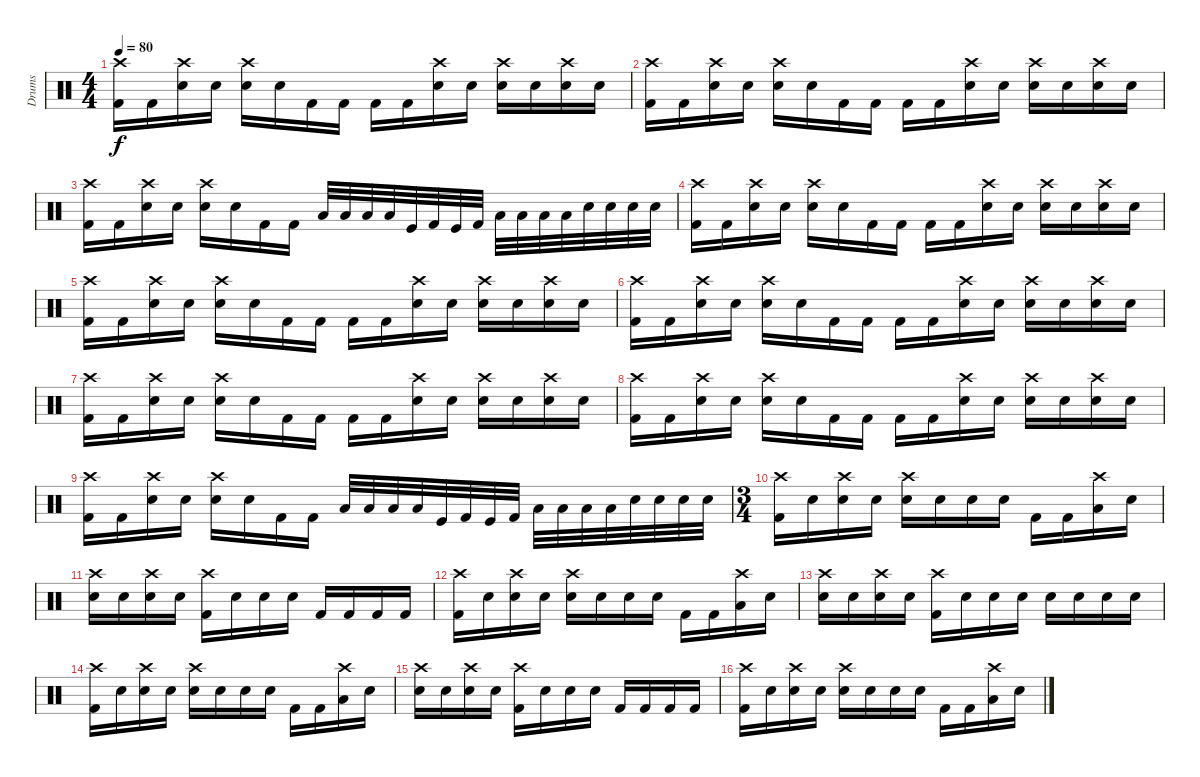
\track ("Drums" "Drums") {instrument percussion}
\staff {score}
\articulation defaults
\ts (4 4)
\tempo 80
\clef neutral
\ks c
("Crash high (hit)" "Kick (hit) 2").16{dy f} "Kick (hit) 2".16 ("Crash high (hit)" "Snare (hit)"{x}).16 "Snare (hit)"{x}.16 ("Crash high (hit)" "Snare (hit) 2").16 "Snare (hit)"{x}.16 "Kick (hit) 2".16 "Kick (hit) 2".16 "Kick (hit) 2".16 "Kick (hit) 2".16 ("Crash high (hit)" "Snare (hit)"{x}).16 "Snare (hit)"{x}.16 ("Crash high (hit)" "Snare (hit) 2").16 "Snare (hit) 2"{x}.16 ("Crash high (hit)" "Snare (hit) 2").16 "Snare (hit) 2"{x}.16 |
("Crash high (hit)" "Kick (hit) 2").16 "Kick (hit) 2".16 ("Crash high (hit)" "Snare (hit)"{x}).16 "Snare (hit)"{x}.16 ("Crash high (hit)" "Snare (hit) 2").16 "Snare (hit)"{x}.16 "Kick (hit) 2".16 "Kick (hit) 2".16 "Kick (hit) 2".16 "Kick (hit) 2".16 ("Crash high (hit)" "Snare (hit)"{x}).16 "Snare (hit)"{x}.16 ("Crash high (hit)" "Snare (hit) 2").16 "Snare (hit) 2"{x}.16 ("Crash high (hit)" "Snare (hit) 2").16 "Snare (hit) 2"{x}.16 |
("Crash high (hit)" "Kick (hit) 2").16 "Kick (hit) 2".16 ("Crash high (hit)" "Snare (hit)"{x}).16 "Snare (hit)"{x}.16 ("Crash high (hit)" "Snare (hit) 2").16 "Snare (hit)"{x}.16 "Kick (hit) 2".16 "Kick (hit) 2".16 "Low Floor Tom (hit)".32 "Low Floor Tom (hit)".32 "Low Floor Tom (hit)".32 "Low Floor Tom (hit)".32 "Kick (hit)".32 "Kick (hit) 2".32 "Kick (hit)".32 "Kick (hit) 2".32 "Low Floor Tom (hit)".32 "Low Floor Tom (hit)".32 "Low Floor Tom (hit)".32 "Low Floor Tom (hit)".32 "Snare (hit) 2".32 "Snare (hit) 2".32 "Snare (hit) 2".32 "Snare (hit) 2".32 |
("Crash high (hit)" "Kick (hit) 2").16 "Kick (hit) 2".16 ("Crash high (hit)" "Snare (hit)"{x}).16 "Snare (hit)"{x}.16 ("Crash high (hit)" "Snare (hit) 2").16 "Snare (hit)"{x}.16 "Kick (hit) 2".16 "Kick (hit) 2".16 "Kick (hit) 2".16 "Kick (hit) 2".16 ("Crash high (hit)" "Snare (hit)"{x}).16 "Snare (hit)"{x}.16 ("Crash high (hit)" "Snare (hit) 2").16 "Snare (hit)"{x}.16 ("Crash high (hit)" "Snare (hit)"{x}).16 "Snare (hit)"{x}.16 |
("Crash high (hit)" "Kick (hit) 2").16 "Kick (hit) 2".16 ("Crash high (hit)" "Snare (hit)"{x}).16 "Snare (hit)"{x}.16 ("Crash high (hit)" "Snare (hit) 2").16 "Snare (hit)"{x}.16 "Kick (hit) 2".16 "Kick (hit) 2".16 "Kick (hit) 2".16 "Kick (hit) 2".16 ("Crash high (hit)" "Snare (hit)"{x}).16 "Snare (hit)"{x}.16 ("Crash high (hit)" "Snare (hit) 2").16 "Snare (hit)"{x}.16 ("Crash high (hit)" "Snare (hit) 2").16 "Snare (hit)"{x}.16 |
("Crash high (hit)" "Kick (hit) 2").16 "Kick (hit) 2".16 ("Crash high (hit)" "Snare (hit)"{x}).16 "Snare (hit)"{x}.16 ("Crash high (hit)" "Snare (hit) 2").16 "Snare (hit)"{x}.16 "Kick (hit) 2".16 "Kick (hit) 2".16 "Kick (hit) 2".16 "Kick (hit) 2".16 ("Crash high (hit)" "Snare (hit)"{x}).16 "Snare (hit)"{x}.16 ("Crash high (hit)" "Snare (hit) 2").16 "Snare (hit)"{x}.16 ("Crash high (hit)" "Snare (hit)"{x}).16 "Snare (hit)"{x}.16 |
("Crash high (hit)" "Kick (hit) 2").16 "Kick (hit) 2".16 ("Crash high (hit)" "Snare (hit)"{x}).16 "Snare (hit)"{x}.16 ("Crash high (hit)" "Snare (hit) 2").16 "Snare (hit)"{x}.16 "Kick (hit) 2".16 "Kick (hit) 2".16 "Kick (hit) 2".16 "Kick (hit) 2".16 ("Crash high (hit)" "Snare (hit)"{x}).16 "Snare (hit)"{x}.16 ("Crash high (hit)" "Snare (hit) 2").16 "Snare (hit) 2"{x}.16 ("Crash high (hit)" "Snare (hit) 2").16 "Snare (hit) 2"{x}.16 |
("Crash high (hit)" "Kick (hit) 2").16 "Kick (hit) 2".16 ("Crash high (hit)" "Snare (hit)"{x}).16 "Snare (hit)"{x}.16 ("Crash high (hit)" "Snare (hit) 2").16 "Snare (hit)"{x}.16 "Kick (hit) 2".16 "Kick (hit) 2".16 "Kick (hit) 2".16 "Kick (hit) 2".16 ("Crash high (hit)" "Snare (hit)"{x}).16 "Snare (hit)"{x}.16 ("Crash high (hit)" "Snare (hit) 2").16 "Snare (hit) 2"{x}.16 ("Crash high (hit)" "Snare (hit) 2").16 "Snare (hit) 2"{x}.16 |
("Crash high (hit)" "Kick (hit) 2").16 "Kick (hit) 2".16 ("Crash high (hit)" "Snare (hit)"{x}).16 "Snare (hit)"{x}.16 ("Crash high (hit)" "Snare (hit) 2").16 "Snare (hit)"{x}.16 "Kick (hit) 2".16 "Kick (hit) 2".16 "Low Floor Tom (hit)".32 "Low Floor Tom (hit)".32 "Low Floor Tom (hit)".32 "Low Floor Tom (hit)".32 "Kick (hit)".32 "Kick (hit) 2".32 "Kick (hit)".32 "Kick (hit) 2".32 "Low Floor Tom (hit)".32 "Low Floor Tom (hit)".32 "Low Floor Tom (hit)".32 "Low Floor Tom (hit)".32 "Snare (hit) 2".32 "Snare (hit) 2".32 "Snare (hit) 2".32 "Snare (hit) 2".32 |
\ts (3 4)
\section ("" "")
("Crash high (hit)" "Kick (hit) 2").16 "Snare (hit)"{x}.16 ("Crash high (hit)" "Snare (hit)"{x}).16 "Snare (hit)"{x}.16 ("Crash high (hit)" "Snare (hit) 2").16 "Snare (hit)"{x}.16 "Snare (hit)"{x}.16 "Snare (hit)"{x}.16 "Kick (hit) 2".16 "Kick (hit) 2".16 ("Crash high (hit)" "Low Floor Tom (hit)"{x}).16 "Snare (hit)"{x}.16 |
("Crash high (hit)" "Snare (hit) 2").16 "Snare (hit)"{x}.16 ("Crash high (hit)" "Snare (hit)"{x}).16 "Snare (hit)"{x}.16 ("Crash high (hit)" "Kick (hit) 2").16 "Snare (hit)"{x}.16 "Snare (hit) 2".16 "Snare (hit)"{x}.16 "Kick (hit) 2".16 "Kick (hit) 2".16 "Kick (hit) 2".16 "Kick (hit) 2".16 |
("Crash high (hit)" "Kick (hit) 2").16 "Snare (hit)"{x}.16 ("Crash high (hit)" "Snare (hit)"{x}).16 "Snare (hit)"{x}.16 ("Crash high (hit)" "Snare (hit) 2").16 "Snare (hit)"{x}.16 "Snare (hit)"{x}.16 "Snare (hit)"{x}.16 "Kick (hit) 2".16 "Kick (hit) 2".16 ("Crash high (hit)" "Low Floor Tom (hit)"{x}).16 "Snare (hit)"{x}.16 |
("Crash high (hit)" "Snare (hit) 2").16 "Snare (hit)"{x}.16 ("Crash high (hit)" "Snare (hit)"{x}).16 "Snare (hit)"{x}.16 ("Crash high (hit)" "Kick (hit) 2").16 "Snare (hit)"{x}.16 "Snare (hit) 2".16 "Snare (hit)"{x}.16 "Snare (hit) 2".16 "Snare (hit) 2".16 "Snare (hit) 2".16 "Snare (hit) 2".16 |
("Crash high (hit)" "Kick (hit) 2").16 "Snare (hit)"{x}.16 ("Crash high (hit)" "Snare (hit)"{x}).16 "Snare (hit)"{x}.16 ("Crash high (hit)" "Snare (hit) 2").16 "Snare (hit)"{x}.16 "Snare (hit)"{x}.16 "Snare (hit)"{x}.16 "Kick (hit) 2".16 "Kick (hit) 2".16 ("Crash high (hit)" "Low Floor Tom (hit)"{x}).16 "Snare (hit)"{x}.16 |
("Crash high (hit)" "Snare (hit) 2").16 "Snare (hit)"{x}.16 ("Crash high (hit)" "Snare (hit)"{x}).16 "Snare (hit)"{x}.16 ("Crash high (hit)" "Kick (hit) 2").16 "Snare (hit)"{x}.16 "Snare (hit) 2".16 "Snare (hit)"{x}.16 "Kick (hit) 2".16 "Kick (hit) 2".16 "Kick (hit) 2".16 "Kick (hit) 2".16 |
("Crash high (hit)" "Kick (hit) 2").16 "Snare (hit)"{x}.16 ("Crash high (hit)" "Snare (hit)"{x}).16 "Snare (hit)"{x}.16 ("Crash high (hit)" "Snare (hit) 2").16 "Snare (hit)"{x}.16 "Snare (hit)"{x}.16 "Snare (hit)"{x}.16 "Kick (hit) 2".16 "Kick (hit) 2".16 ("Crash high (hit)" "Low Floor Tom (hit)"{x}).16 "Snare (hit)"{x}.16
